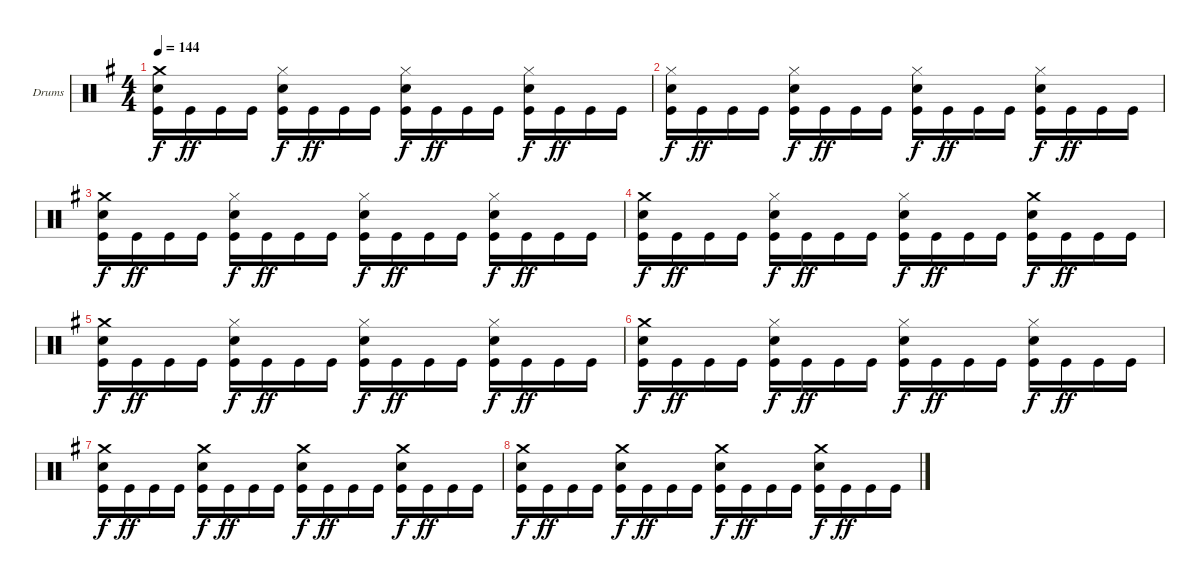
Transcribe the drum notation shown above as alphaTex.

\bracketExtendMode groupsimilarinstruments
\firstSystemTrackNameOrientation horizontal
\otherSystemsTrackNameOrientation horizontal
\track ("Drumkit" "Drums") {instrument percussion}
\staff {score}
\articulation defaults
\ts (4 4)
\tempo 144
\clef neutral
\ks g
("Crash medium (hit)" "Snare (hit) 2" "Kick (hit)").16{dy f} "Kick (hit)".16{dy ff} "Kick (hit)".16 "Kick (hit)".16 ("Hi-Hat (closed)" "Snare (hit) 2" "Kick (hit)").16{dy f} "Kick (hit)".16{dy ff} "Kick (hit)".16 "Kick (hit)".16 ("Hi-Hat (closed)" "Snare (hit) 2" "Kick (hit)").16{dy f} "Kick (hit)".16{dy ff} "Kick (hit)".16 "Kick (hit)".16 ("Hi-Hat (closed)" "Snare (hit) 2" "Kick (hit)").16{dy f} "Kick (hit)".16{dy ff} "Kick (hit)".16 "Kick (hit)".16 |
("Hi-Hat (closed)" "Snare (hit) 2" "Kick (hit)").16{dy f} "Kick (hit)".16{dy ff} "Kick (hit)".16 "Kick (hit)".16 ("Hi-Hat (closed)" "Snare (hit) 2" "Kick (hit)").16{dy f} "Kick (hit)".16{dy ff} "Kick (hit)".16 "Kick (hit)".16 ("Hi-Hat (closed)" "Snare (hit) 2" "Kick (hit)").16{dy f} "Kick (hit)".16{dy ff} "Kick (hit)".16 "Kick (hit)".16 ("Hi-Hat (closed)" "Snare (hit) 2" "Kick (hit)").16{dy f} "Kick (hit)".16{dy ff} "Kick (hit)".16 "Kick (hit)".16 |
("Crash medium (hit)" "Snare (hit) 2" "Kick (hit)").16{dy f} "Kick (hit)".16{dy ff} "Kick (hit)".16 "Kick (hit)".16 ("Hi-Hat (closed)" "Snare (hit) 2" "Kick (hit)").16{dy f} "Kick (hit)".16{dy ff} "Kick (hit)".16 "Kick (hit)".16 ("Hi-Hat (closed)" "Snare (hit) 2" "Kick (hit)").16{dy f} "Kick (hit)".16{dy ff} "Kick (hit)".16 "Kick (hit)".16 ("Hi-Hat (closed)" "Snare (hit) 2" "Kick (hit)").16{dy f} "Kick (hit)".16{dy ff} "Kick (hit)".16 "Kick (hit)".16 |
("Crash medium (hit)" "Snare (hit) 2" "Kick (hit)").16{dy f} "Kick (hit)".16{dy ff} "Kick (hit)".16 "Kick (hit)".16 ("Hi-Hat (closed)" "Snare (hit) 2" "Kick (hit)").16{dy f} "Kick (hit)".16{dy ff} "Kick (hit)".16 "Kick (hit)".16 ("Hi-Hat (closed)" "Snare (hit) 2" "Kick (hit)").16{dy f} "Kick (hit)".16{dy ff} "Kick (hit)".16 "Kick (hit)".16 ("Crash medium (hit)" "Snare (hit) 2" "Kick (hit)").16{dy f} "Kick (hit)".16{dy ff} "Kick (hit)".16 "Kick (hit)".16 |
("Crash medium (hit)" "Snare (hit) 2" "Kick (hit)").16{dy f} "Kick (hit)".16{dy ff} "Kick (hit)".16 "Kick (hit)".16 ("Hi-Hat (closed)" "Snare (hit) 2" "Kick (hit)").16{dy f} "Kick (hit)".16{dy ff} "Kick (hit)".16 "Kick (hit)".16 ("Hi-Hat (closed)" "Snare (hit) 2" "Kick (hit)").16{dy f} "Kick (hit)".16{dy ff} "Kick (hit)".16 "Kick (hit)".16 ("Hi-Hat (closed)" "Snare (hit) 2" "Kick (hit)").16{dy f} "Kick (hit)".16{dy ff} "Kick (hit)".16 "Kick (hit)".16 |
("Crash medium (hit)" "Snare (hit) 2" "Kick (hit)").16{dy f} "Kick (hit)".16{dy ff} "Kick (hit)".16 "Kick (hit)".16 ("Hi-Hat (closed)" "Snare (hit) 2" "Kick (hit)").16{dy f} "Kick (hit)".16{dy ff} "Kick (hit)".16 "Kick (hit)".16 ("Hi-Hat (closed)" "Snare (hit) 2" "Kick (hit)").16{dy f} "Kick (hit)".16{dy ff} "Kick (hit)".16 "Kick (hit)".16 ("Hi-Hat (closed)" "Snare (hit) 2" "Kick (hit)").16{dy f} "Kick (hit)".16{dy ff} "Kick (hit)".16 "Kick (hit)".16 |
("Crash medium (hit)" "Snare (hit) 2" "Kick (hit)").16{dy f} "Kick (hit)".16{dy ff} "Kick (hit)".16 "Kick (hit)".16 ("Crash medium (hit)" "Snare (hit) 2" "Kick (hit)").16{dy f} "Kick (hit)".16{dy ff} "Kick (hit)".16 "Kick (hit)".16 ("Crash medium (hit)" "Snare (hit) 2" "Kick (hit)").16{dy f} "Kick (hit)".16{dy ff} "Kick (hit)".16 "Kick (hit)".16 ("Crash medium (hit)" "Snare (hit) 2" "Kick (hit)").16{dy f} "Kick (hit)".16{dy ff} "Kick (hit)".16 "Kick (hit)".16 |
("Crash medium (hit)" "Snare (hit) 2" "Kick (hit)").16{dy f} "Kick (hit)".16{dy ff} "Kick (hit)".16 "Kick (hit)".16 ("Crash medium (hit)" "Snare (hit) 2" "Kick (hit)").16{dy f} "Kick (hit)".16{dy ff} "Kick (hit)".16 "Kick (hit)".16 ("Crash medium (hit)" "Snare (hit) 2" "Kick (hit)").16{dy f} "Kick (hit)".16{dy ff} "Kick (hit)".16 "Kick (hit)".16 ("Crash medium (hit)" "Snare (hit) 2" "Kick (hit)").16{dy f} "Kick (hit)".16{dy ff} "Kick (hit)".16 "Kick (hit)".16
